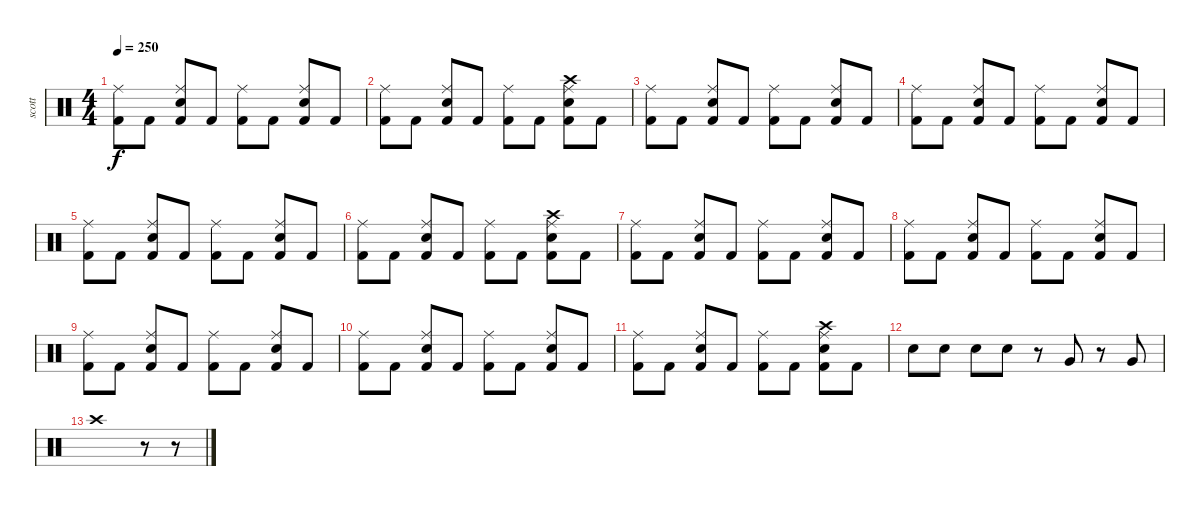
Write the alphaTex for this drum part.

\track ("scott" "scott") {instrument percussion bank 10}
\staff {score}
\articulation defaults
\ts (4 4)
\tempo 250
\clef neutral
\ks c
("Kick (hit) 2" "Ride (middle)").8{dy f} "Kick (hit) 2".8 ("Kick (hit) 2" "Snare (hit) 2" "Ride (middle)").8 "Kick (hit) 2".8 ("Kick (hit) 2" "Ride (middle)").8 "Kick (hit) 2".8 ("Kick (hit) 2" "Snare (hit) 2" "Ride (middle)").8 "Kick (hit) 2".8 |
("Kick (hit) 2" "Ride (middle)").8 "Kick (hit) 2".8 ("Kick (hit) 2" "Snare (hit) 2" "Ride (middle)").8 "Kick (hit) 2".8 ("Kick (hit) 2" "Ride (middle)").8 "Kick (hit) 2".8 ("Kick (hit) 2" "Snare (hit) 2" "Ride (middle)" "Crash high (hit)").8 "Kick (hit) 2".8 |
("Kick (hit) 2" "Ride (middle)").8 "Kick (hit) 2".8 ("Kick (hit) 2" "Snare (hit) 2" "Ride (middle)").8 "Kick (hit) 2".8 ("Kick (hit) 2" "Ride (middle)").8 "Kick (hit) 2".8 ("Kick (hit) 2" "Snare (hit) 2" "Ride (middle)").8 "Kick (hit) 2".8 |
("Kick (hit) 2" "Ride (middle)").8 "Kick (hit) 2".8 ("Kick (hit) 2" "Snare (hit) 2" "Ride (middle)").8 "Kick (hit) 2".8 ("Kick (hit) 2" "Ride (middle)").8 "Kick (hit) 2".8 ("Kick (hit) 2" "Snare (hit) 2" "Ride (middle)").8 "Kick (hit) 2".8 |
("Kick (hit) 2" "Ride (middle)").8 "Kick (hit) 2".8 ("Kick (hit) 2" "Snare (hit) 2" "Ride (middle)").8 "Kick (hit) 2".8 ("Kick (hit) 2" "Ride (middle)").8 "Kick (hit) 2".8 ("Kick (hit) 2" "Snare (hit) 2" "Ride (middle)").8 "Kick (hit) 2".8 |
("Kick (hit) 2" "Ride (middle)").8 "Kick (hit) 2".8 ("Kick (hit) 2" "Snare (hit) 2" "Ride (middle)").8 "Kick (hit) 2".8 ("Kick (hit) 2" "Ride (middle)").8 "Kick (hit) 2".8 ("Kick (hit) 2" "Snare (hit) 2" "Ride (middle)" "Crash high (hit)").8 "Kick (hit) 2".8 |
("Kick (hit) 2" "Ride (middle)").8 "Kick (hit) 2".8 ("Kick (hit) 2" "Snare (hit) 2" "Ride (middle)").8 "Kick (hit) 2".8 ("Kick (hit) 2" "Ride (middle)").8 "Kick (hit) 2".8 ("Kick (hit) 2" "Snare (hit) 2" "Ride (middle)").8 "Kick (hit) 2".8 |
("Kick (hit) 2" "Ride (middle)").8 "Kick (hit) 2".8 ("Kick (hit) 2" "Snare (hit) 2" "Ride (middle)").8 "Kick (hit) 2".8 ("Kick (hit) 2" "Ride (middle)").8 "Kick (hit) 2".8 ("Kick (hit) 2" "Snare (hit) 2" "Ride (middle)").8 "Kick (hit) 2".8 |
("Kick (hit) 2" "Ride (middle)").8 "Kick (hit) 2".8 ("Kick (hit) 2" "Snare (hit) 2" "Ride (middle)").8 "Kick (hit) 2".8 ("Kick (hit) 2" "Ride (middle)").8 "Kick (hit) 2".8 ("Kick (hit) 2" "Snare (hit) 2" "Ride (middle)").8 "Kick (hit) 2".8 |
("Kick (hit) 2" "Ride (middle)").8 "Kick (hit) 2".8 ("Kick (hit) 2" "Snare (hit) 2" "Ride (middle)").8 "Kick (hit) 2".8 ("Kick (hit) 2" "Ride (middle)").8 "Kick (hit) 2".8 ("Kick (hit) 2" "Snare (hit) 2" "Ride (middle)").8 "Kick (hit) 2".8 |
("Kick (hit) 2" "Ride (middle)").8 "Kick (hit) 2".8 ("Kick (hit) 2" "Snare (hit) 2" "Ride (middle)").8 "Kick (hit) 2".8 ("Kick (hit) 2" "Ride (middle)").8 "Kick (hit) 2".8 ("Kick (hit) 2" "Snare (hit) 2" "Ride (middle)" "Crash high (hit)").8 "Kick (hit) 2".8 |
"Electric Snare (hit)".8 "Electric Snare (hit)".8 "Electric Snare (hit)".8 "Electric Snare (hit)".8 r.8 "Very Low Tom (hit)".8 r.8 "Very Low Tom (hit)".8 |
"Crash high (hit)".1 r.8 r.8
